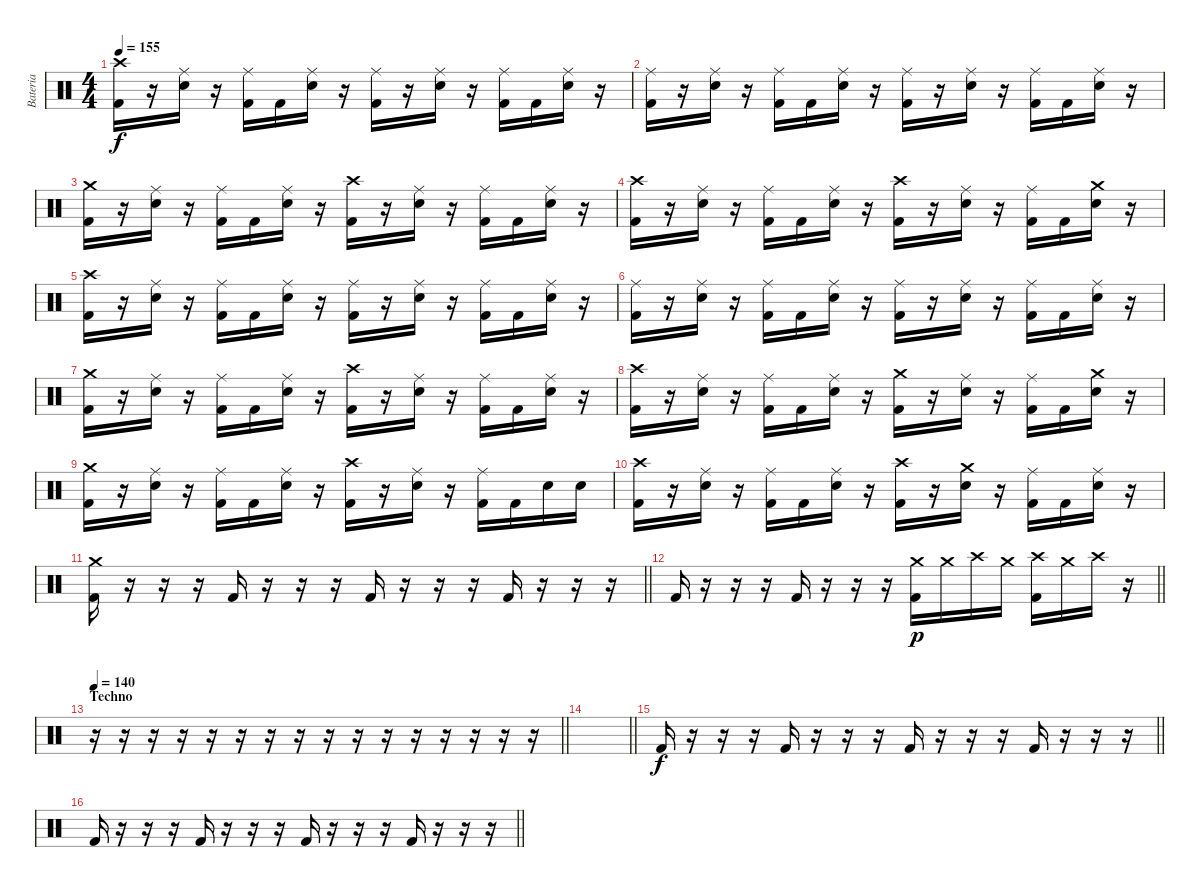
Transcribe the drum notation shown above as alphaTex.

\track ("Bateria" "Bateria") {instrument percussion}
\staff {score}
\articulation defaults
\ts (4 4)
\tempo 155
\clef neutral
\ks c
("Crash high (hit)" "Kick (hit) 2").16{dy f} r.16 ("Ride (middle)" "Snare (hit) 2").16 r.16 ("Ride (middle)" "Kick (hit) 2").16 "Kick (hit) 2".16 ("Ride (middle)" "Snare (hit) 2").16 r.16 ("Ride (middle)" "Kick (hit) 2").16 r.16 ("Ride (middle)" "Snare (hit) 2").16 r.16 ("Ride (middle)" "Kick (hit) 2").16 "Kick (hit) 2".16 ("Ride (middle)" "Snare (hit) 2").16 r.16 |
("Ride (middle)" "Kick (hit) 2").16 r.16 ("Ride (middle)" "Snare (hit) 2").16 r.16 ("Ride (middle)" "Kick (hit) 2").16 "Kick (hit) 2".16 ("Ride (middle)" "Snare (hit) 2").16 r.16 ("Ride (middle)" "Kick (hit) 2").16 r.16 ("Ride (middle)" "Snare (hit) 2").16 r.16 ("Ride (middle)" "Kick (hit) 2").16 "Kick (hit) 2".16 ("Ride (middle)" "Snare (hit) 2").16 r.16 |
("Crash medium (hit)" "Kick (hit) 2").16 r.16 ("Ride (middle)" "Snare (hit) 2").16 r.16 ("Ride (middle)" "Kick (hit) 2").16 "Kick (hit) 2".16 ("Ride (middle)" "Snare (hit) 2").16 r.16 ("Crash high (hit)" "Kick (hit) 2").16 r.16 ("Ride (middle)" "Snare (hit) 2").16 r.16 ("Ride (middle)" "Kick (hit) 2").16 "Kick (hit) 2".16 ("Ride (middle)" "Snare (hit) 2").16 r.16 |
("Crash high (hit)" "Kick (hit) 2").16 r.16 ("Ride (middle)" "Snare (hit) 2").16 r.16 ("Ride (middle)" "Kick (hit) 2").16 "Kick (hit) 2".16 ("Ride (middle)" "Snare (hit) 2").16 r.16 ("Crash high (hit)" "Kick (hit) 2").16 r.16 ("Ride (middle)" "Snare (hit) 2").16 r.16 ("Ride (middle)" "Kick (hit) 2").16 "Kick (hit) 2".16 ("Crash medium (hit)" "Snare (hit) 2").16 r.16 |
("Crash high (hit)" "Kick (hit) 2").16 r.16 ("Ride (middle)" "Snare (hit) 2").16 r.16 ("Ride (middle)" "Kick (hit) 2").16 "Kick (hit) 2".16 ("Ride (middle)" "Snare (hit) 2").16 r.16 ("Ride (middle)" "Kick (hit) 2").16 r.16 ("Ride (middle)" "Snare (hit) 2").16 r.16 ("Ride (middle)" "Kick (hit) 2").16 "Kick (hit) 2".16 ("Ride (middle)" "Snare (hit) 2").16 r.16 |
("Ride (middle)" "Kick (hit) 2").16 r.16 ("Ride (middle)" "Snare (hit) 2").16 r.16 ("Ride (middle)" "Kick (hit) 2").16 "Kick (hit) 2".16 ("Ride (middle)" "Snare (hit) 2").16 r.16 ("Ride (middle)" "Kick (hit) 2").16 r.16 ("Ride (middle)" "Snare (hit) 2").16 r.16 ("Ride (middle)" "Kick (hit) 2").16 "Kick (hit) 2".16 ("Ride (middle)" "Snare (hit) 2").16 r.16 |
("Crash medium (hit)" "Kick (hit) 2").16 r.16 ("Ride (middle)" "Snare (hit) 2").16 r.16 ("Ride (middle)" "Kick (hit) 2").16 "Kick (hit) 2".16 ("Ride (middle)" "Snare (hit) 2").16 r.16 ("Crash high (hit)" "Kick (hit) 2").16 r.16 ("Ride (middle)" "Snare (hit) 2").16 r.16 ("Ride (middle)" "Kick (hit) 2").16 "Kick (hit) 2".16 ("Ride (middle)" "Snare (hit) 2").16 r.16 |
("Crash high (hit)" "Kick (hit) 2").16 r.16 ("Ride (middle)" "Snare (hit) 2").16 r.16 ("Ride (middle)" "Kick (hit) 2").16 "Kick (hit) 2".16 ("Ride (middle)" "Snare (hit) 2").16 r.16 ("Crash medium (hit)" "Kick (hit) 2").16 r.16 ("Ride (middle)" "Snare (hit) 2").16 r.16 ("Ride (middle)" "Kick (hit) 2").16 "Kick (hit) 2".16 ("Crash medium (hit)" "Snare (hit) 2").16 r.16 |
("Crash medium (hit)" "Kick (hit) 2").16 r.16 ("Ride (middle)" "Snare (hit) 2").16 r.16 ("Ride (middle)" "Kick (hit) 2").16 "Kick (hit) 2".16 ("Ride (middle)" "Snare (hit) 2").16 r.16 ("Crash high (hit)" "Kick (hit) 2").16 r.16 ("Ride (middle)" "Snare (hit) 2").16 r.16 ("Ride (middle)" "Kick (hit) 2").16 "Kick (hit) 2".16 "Snare (hit) 2".16 "Snare (hit) 2".16 |
("Crash high (hit)" "Kick (hit) 2").16 r.16 ("Ride (middle)" "Snare (hit) 2").16 r.16 ("Ride (middle)" "Kick (hit) 2").16 "Kick (hit) 2".16 ("Ride (middle)" "Snare (hit) 2").16 r.16 ("Crash high (hit)" "Kick (hit) 2").16 r.16 ("Crash medium (hit)" "Snare (hit) 2").16 r.16 ("Ride (middle)" "Kick (hit) 2").16 "Kick (hit) 2".16 ("Ride (middle)" "Snare (hit) 2").16 r.16 |
\barLineRight lightlight
("Crash medium (hit)" "Kick (hit) 2").16 r.16 r.16 r.16 "Kick (hit) 2".16 r.16 r.16 r.16 "Kick (hit) 2".16 r.16 r.16 r.16 "Kick (hit) 2".16 r.16 r.16 r.16 |
\barLineRight lightlight "Kick (hit) 2".16
r.16 r.16 r.16 "Kick (hit) 2".16 r.16 r.16 r.16 ("Crash medium (hit)" "Kick (hit) 2").16{dy p} "Crash medium (hit)".16 "Crash high (hit)".16 "Crash medium (hit)".16 ("Crash high (hit)" "Kick (hit) 2").16 "Crash medium (hit)".16 "Crash high (hit)".16 r.16 |
\section ("" "Techno")
\tempo 140
\barLineRight lightlight
r.16 r.16 r.16 r.16 r.16 r.16 r.16 r.16 r.16 r.16 r.16 r.16 r.16 r.16 r.16 r.16 |
\barLineRight lightlight
|
\barLineRight lightlight "Kick (hit) 2".16{dy f}
r.16 r.16 r.16 "Kick (hit) 2".16 r.16 r.16 r.16 "Kick (hit) 2".16 r.16 r.16 r.16 "Kick (hit) 2".16 r.16 r.16 r.16 |
\barLineRight lightlight "Kick (hit) 2".16
r.16 r.16 r.16 "Kick (hit) 2".16 r.16 r.16 r.16 "Kick (hit) 2".16 r.16 r.16 r.16 "Kick (hit) 2".16 r.16 r.16 r.16
